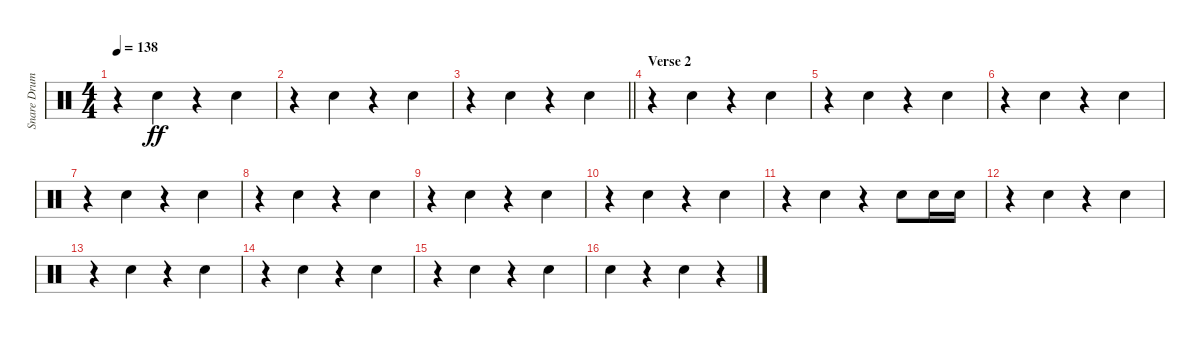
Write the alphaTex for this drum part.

\track ("Snare Drum" "Snare Drum") {instrument percussion}
\staff {score}
\articulation defaults
\ts (4 4)
\tempo 138
\clef neutral
\ks c
r.4{dy ff} "Electric Snare (hit)".4 r.4 "Electric Snare (hit)".4 |
r.4 "Electric Snare (hit)".4 r.4 "Electric Snare (hit)".4 |
\barLineRight lightlight
r.4 "Electric Snare (hit)".4 r.4 "Electric Snare (hit)".4 |
\section ("" "Verse 2")
r.4 "Electric Snare (hit)".4 r.4 "Electric Snare (hit)".4 |
r.4 "Electric Snare (hit)".4 r.4 "Electric Snare (hit)".4 |
r.4 "Electric Snare (hit)".4 r.4 "Electric Snare (hit)".4 |
r.4 "Electric Snare (hit)".4 r.4 "Electric Snare (hit)".4 |
r.4 "Electric Snare (hit)".4 r.4 "Electric Snare (hit)".4 |
r.4 "Electric Snare (hit)".4 r.4 "Electric Snare (hit)".4 |
r.4 "Electric Snare (hit)".4 r.4 "Electric Snare (hit)".4 |
r.4 "Electric Snare (hit)".4 r.4 "Electric Snare (hit)".8 "Electric Snare (hit)".16 "Electric Snare (hit)".16 |
r.4 "Electric Snare (hit)".4 r.4 "Electric Snare (hit)".4 |
r.4 "Electric Snare (hit)".4 r.4 "Electric Snare (hit)".4 |
r.4 "Electric Snare (hit)".4 r.4 "Electric Snare (hit)".4 |
r.4 "Electric Snare (hit)".4 r.4 "Electric Snare (hit)".4 |
"Electric Snare (hit)".4 r.4 "Electric Snare (hit)".4 r.4
